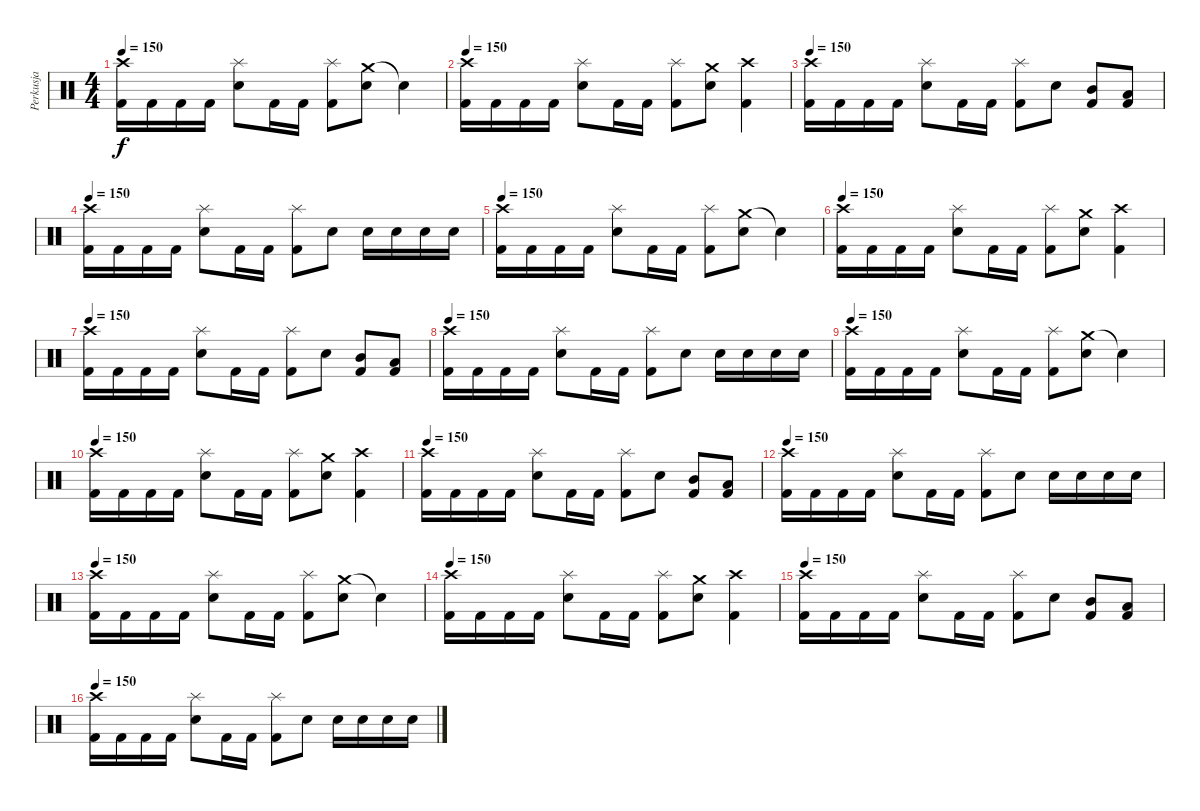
\track ("Perkusja" "Perkusja") {instrument percussion}
\staff {score}
\articulation defaults
\ts (4 4)
\tempo 150
\clef neutral
\ks c
("Crash high (hit)" "Kick (hit) 2").16{dy f} "Kick (hit) 2".16 "Kick (hit) 2".16 "Kick (hit) 2".16 ("Splash (hit)" "Electric Snare (hit)").8 "Kick (hit) 2".16 "Kick (hit) 2".16 ("Splash (hit)" "Kick (hit) 2").8 ("Crash medium (hit)" "Electric Snare (hit)").8 "Snare (hit)"{t}.4 |
\tempo 150
("Crash high (hit)" "Kick (hit) 2").16 "Kick (hit) 2".16 "Kick (hit) 2".16 "Kick (hit) 2".16 ("Splash (hit)" "Electric Snare (hit)").8 "Kick (hit) 2".16 "Kick (hit) 2".16 ("Splash (hit)" "Kick (hit) 2").8 ("Crash medium (hit)" "Electric Snare (hit)").8 ("Crash high (hit)" "Kick (hit) 2").4 |
\tempo 150
("Crash high (hit)" "Kick (hit) 2").16 "Kick (hit) 2".16 "Kick (hit) 2".16 "Kick (hit) 2".16 ("Splash (hit)" "Electric Snare (hit)").8 "Kick (hit) 2".16 "Kick (hit) 2".16 ("Splash (hit)" "Kick (hit) 2").8 "Electric Snare (hit)".8 ("Kick (hit) 2" "Mid Tom (hit)").8 ("Kick (hit) 2" "Low Tom (hit)").8 |
\tempo 150
("Crash high (hit)" "Kick (hit) 2").16 "Kick (hit) 2".16 "Kick (hit) 2".16 "Kick (hit) 2".16 ("Splash (hit)" "Electric Snare (hit)").8 "Kick (hit) 2".16 "Kick (hit) 2".16 ("Splash (hit)" "Kick (hit) 2").8 "Electric Snare (hit)".8 "Electric Snare (hit)".16 "Electric Snare (hit)".16 "Electric Snare (hit)".16 "Electric Snare (hit)".16 |
\tempo 150
("Crash high (hit)" "Kick (hit) 2").16 "Kick (hit) 2".16 "Kick (hit) 2".16 "Kick (hit) 2".16 ("Splash (hit)" "Electric Snare (hit)").8 "Kick (hit) 2".16 "Kick (hit) 2".16 ("Splash (hit)" "Kick (hit) 2").8 ("Crash medium (hit)" "Electric Snare (hit)").8 "Snare (hit)"{t}.4 |
\tempo 150
("Crash high (hit)" "Kick (hit) 2").16 "Kick (hit) 2".16 "Kick (hit) 2".16 "Kick (hit) 2".16 ("Splash (hit)" "Electric Snare (hit)").8 "Kick (hit) 2".16 "Kick (hit) 2".16 ("Splash (hit)" "Kick (hit) 2").8 ("Crash medium (hit)" "Electric Snare (hit)").8 ("Crash high (hit)" "Kick (hit) 2").4 |
\tempo 150
("Crash high (hit)" "Kick (hit) 2").16 "Kick (hit) 2".16 "Kick (hit) 2".16 "Kick (hit) 2".16 ("Splash (hit)" "Electric Snare (hit)").8 "Kick (hit) 2".16 "Kick (hit) 2".16 ("Splash (hit)" "Kick (hit) 2").8 "Electric Snare (hit)".8 ("Kick (hit) 2" "Mid Tom (hit)").8 ("Kick (hit) 2" "Low Tom (hit)").8 |
\tempo 150
("Crash high (hit)" "Kick (hit) 2").16 "Kick (hit) 2".16 "Kick (hit) 2".16 "Kick (hit) 2".16 ("Splash (hit)" "Electric Snare (hit)").8 "Kick (hit) 2".16 "Kick (hit) 2".16 ("Splash (hit)" "Kick (hit) 2").8 "Electric Snare (hit)".8 "Electric Snare (hit)".16 "Electric Snare (hit)".16 "Electric Snare (hit)".16 "Electric Snare (hit)".16 |
\tempo 150
("Crash high (hit)" "Kick (hit) 2").16 "Kick (hit) 2".16 "Kick (hit) 2".16 "Kick (hit) 2".16 ("Splash (hit)" "Electric Snare (hit)").8 "Kick (hit) 2".16 "Kick (hit) 2".16 ("Splash (hit)" "Kick (hit) 2").8 ("Crash medium (hit)" "Electric Snare (hit)").8 "Snare (hit)"{t}.4 |
\tempo 150
("Crash high (hit)" "Kick (hit) 2").16 "Kick (hit) 2".16 "Kick (hit) 2".16 "Kick (hit) 2".16 ("Splash (hit)" "Electric Snare (hit)").8 "Kick (hit) 2".16 "Kick (hit) 2".16 ("Splash (hit)" "Kick (hit) 2").8 ("Crash medium (hit)" "Electric Snare (hit)").8 ("Crash high (hit)" "Kick (hit) 2").4 |
\tempo 150
("Crash high (hit)" "Kick (hit) 2").16 "Kick (hit) 2".16 "Kick (hit) 2".16 "Kick (hit) 2".16 ("Splash (hit)" "Electric Snare (hit)").8 "Kick (hit) 2".16 "Kick (hit) 2".16 ("Splash (hit)" "Kick (hit) 2").8 "Electric Snare (hit)".8 ("Kick (hit) 2" "Mid Tom (hit)").8 ("Kick (hit) 2" "Low Tom (hit)").8 |
\tempo 150
("Crash high (hit)" "Kick (hit) 2").16 "Kick (hit) 2".16 "Kick (hit) 2".16 "Kick (hit) 2".16 ("Splash (hit)" "Electric Snare (hit)").8 "Kick (hit) 2".16 "Kick (hit) 2".16 ("Splash (hit)" "Kick (hit) 2").8 "Electric Snare (hit)".8 "Electric Snare (hit)".16 "Electric Snare (hit)".16 "Electric Snare (hit)".16 "Electric Snare (hit)".16 |
\tempo 150
("Crash high (hit)" "Kick (hit) 2").16 "Kick (hit) 2".16 "Kick (hit) 2".16 "Kick (hit) 2".16 ("Splash (hit)" "Electric Snare (hit)").8 "Kick (hit) 2".16 "Kick (hit) 2".16 ("Splash (hit)" "Kick (hit) 2").8 ("Crash medium (hit)" "Electric Snare (hit)").8 "Snare (hit)"{t}.4 |
\tempo 150
("Crash high (hit)" "Kick (hit) 2").16 "Kick (hit) 2".16 "Kick (hit) 2".16 "Kick (hit) 2".16 ("Splash (hit)" "Electric Snare (hit)").8 "Kick (hit) 2".16 "Kick (hit) 2".16 ("Splash (hit)" "Kick (hit) 2").8 ("Crash medium (hit)" "Electric Snare (hit)").8 ("Crash high (hit)" "Kick (hit) 2").4 |
\tempo 150
("Crash high (hit)" "Kick (hit) 2").16 "Kick (hit) 2".16 "Kick (hit) 2".16 "Kick (hit) 2".16 ("Splash (hit)" "Electric Snare (hit)").8 "Kick (hit) 2".16 "Kick (hit) 2".16 ("Splash (hit)" "Kick (hit) 2").8 "Electric Snare (hit)".8 ("Kick (hit) 2" "Mid Tom (hit)").8 ("Kick (hit) 2" "Low Tom (hit)").8 |
\tempo 150
("Crash high (hit)" "Kick (hit) 2").16 "Kick (hit) 2".16 "Kick (hit) 2".16 "Kick (hit) 2".16 ("Splash (hit)" "Electric Snare (hit)").8 "Kick (hit) 2".16 "Kick (hit) 2".16 ("Splash (hit)" "Kick (hit) 2").8 "Electric Snare (hit)".8 "Electric Snare (hit)".16 "Electric Snare (hit)".16 "Electric Snare (hit)".16 "Electric Snare (hit)".16
